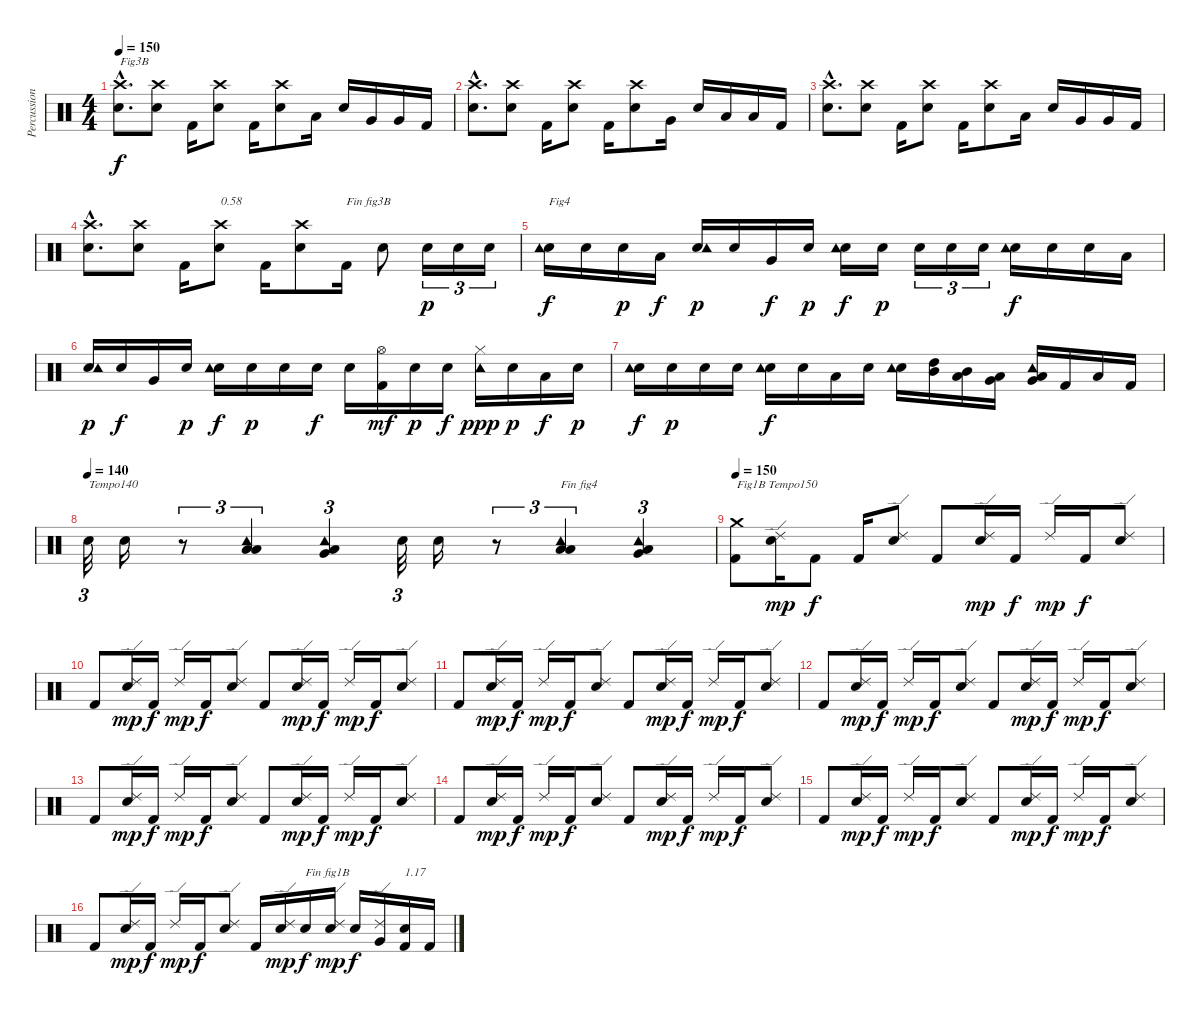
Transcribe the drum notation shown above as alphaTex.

\track ("Percussions" "Percussion") {instrument percussion}
\staff {score}
\articulation defaults
\ts (4 4)
\tempo 150
\clef neutral
\ks c
("Electric Snare (hit)"{hac} "Crash high (hit)"{hac}).8{d txt "Fig3B" dy f} ("Electric Snare (hit)" "Crash high (hit)").8 "Kick (hit) 2".16 ("Electric Snare (hit)" "Crash high (hit)").8 "Kick (hit) 2".16 ("Electric Snare (hit)" "Crash high (hit)").8 "Low Tom (hit)".16 "Electric Snare (hit)".16 "Very Low Tom (hit)".16 "Very Low Tom (hit)".16 "Kick (hit) 2".16 |
("Electric Snare (hit)"{hac} "Crash high (hit)"{hac}).8{d} ("Electric Snare (hit)" "Crash high (hit)").8 "Kick (hit) 2".16 ("Electric Snare (hit)" "Crash high (hit)").8 "Kick (hit) 2".16 ("Electric Snare (hit)" "Crash high (hit)").8 "Very Low Tom (hit)".16 "Electric Snare (hit)".16 "Low Tom (hit)".16 "Low Tom (hit)".16 "Kick (hit) 2".16 |
("Electric Snare (hit)"{hac} "Crash high (hit)"{hac}).8{d} ("Electric Snare (hit)" "Crash high (hit)").8 "Kick (hit) 2".16 ("Electric Snare (hit)" "Crash high (hit)").8 "Kick (hit) 2".16 ("Electric Snare (hit)" "Crash high (hit)").8 "Low Tom (hit)".16 "Electric Snare (hit)".16 "Very Low Tom (hit)".16 "Very Low Tom (hit)".16 "Kick (hit) 2".16 |
("Electric Snare (hit)"{hac} "Crash high (hit)"{hac}).8{d} ("Electric Snare (hit)" "Crash high (hit)").8 "Kick (hit) 2".16 ("Electric Snare (hit)" "Crash high (hit)").8{txt "0.58"} "Kick (hit) 2".16 ("Electric Snare (hit)" "Crash high (hit)").8 "Kick (hit) 2".16{txt "Fin fig3B"} "Electric Snare (hit)".8 "Electric Snare (hit)".16{tu (3 2) dy p} "Electric Snare (hit)".16{tu (3 2)} "Electric Snare (hit)".16{tu (3 2)} |
("Electric Snare (hit)" "Tambourine (hit)").16{txt "Fig4" dy f} "Electric Snare (hit)".16 "Electric Snare (hit)".16{dy p} "Low Tom (hit)".16{dy f} ("Electric Snare (hit)" "Tambourine (hit)").16{dy p} "Electric Snare (hit)".16 "Very Low Tom (hit)".16{dy f} "Electric Snare (hit)".16{dy p} ("Electric Snare (hit)" "Tambourine (hit)").16{dy f} "Electric Snare (hit)".16{dy p} "Electric Snare (hit)".16{tu (3 2)} "Electric Snare (hit)".16{tu (3 2)} "Electric Snare (hit)".16{tu (3 2)} ("Electric Snare (hit)" "Tambourine (hit)").16{dy f} "Electric Snare (hit)".16 "Electric Snare (hit)".16 "Low Tom (hit)".16 |
("Electric Snare (hit)" "Tambourine (hit)").16{dy p} "Electric Snare (hit)".16{dy f} "Very Low Tom (hit)".16 "Electric Snare (hit)".16{dy p} ("Electric Snare (hit)" "Tambourine (hit)").16{dy f} "Electric Snare (hit)".16{dy p} "Electric Snare (hit)".16 "Electric Snare (hit)".16{dy f} "Electric Snare (hit)".16 ("Kick (hit) 2" "Hi-Hat (open)").16{dy mf} "Electric Snare (hit)".16{dy p} "Electric Snare (hit)".16{dy f} ("Tambourine (hit)" "Hi-Hat (closed)").16{dy ppp} "Electric Snare (hit)".16{dy p} "Low Tom (hit)".16{dy f} "Electric Snare (hit)".16{dy p} |
("Electric Snare (hit)" "Tambourine (hit)").16{dy f} "Electric Snare (hit)".16{dy p} "Electric Snare (hit)".16 "Electric Snare (hit)".16 ("Electric Snare (hit)" "Tambourine (hit)").16{dy f} "Electric Snare (hit)".16 "Low Tom (hit)".16 "Electric Snare (hit)".16 ("Electric Snare (hit)" "Tambourine (hit)").16 ("High Tom (hit)" "Mid Tom (hit)").16 ("Mid Tom (hit)" "Low Tom (hit)").16 ("Low Tom (hit)" "Very Low Tom (hit)").16 ("Very Low Tom (hit)" "Low Floor Tom (hit)" "Tambourine (hit)").16 "Kick (hit) 2".16 "Low Floor Tom (hit)".16 "Kick (hit) 2".16 |
\tempo (140)
"Electric Snare (hit)".32{tu (3 2) txt "Tempo140"} "Electric Snare (hit)".16 r.8{tu (3 2)} ("Low Tom (hit)" "Low Floor Tom (hit)" "Tambourine (hit)").4{tu (3 2)} ("Very Low Tom (hit)" "Low Floor Tom (hit)" "Tambourine (hit)").4{tu (3 2)} "Electric Snare (hit)".32{tu (3 2)} "Electric Snare (hit)".16 r.8{tu (3 2)} ("Low Tom (hit)" "Low Floor Tom (hit)" "Tambourine (hit)").4{tu (3 2) txt "Fin fig4"} ("Very Low Tom (hit)" "Low Floor Tom (hit)" "Tambourine (hit)").4{tu (3 2)} |
\tempo 150
("Kick (hit) 2" "Crash medium (hit)").8{txt "Fig1B Tempo150"} ("Electric Snare (hit)" "Ride (edge) 2").16{dy mp} "Kick (hit) 2".8{dy f} "Kick (hit) 2".16 ("Electric Snare (hit)" "Ride (edge) 2").8 "Kick (hit) 2".8 ("Electric Snare (hit)" "Ride (edge) 2").16{dy mp} "Kick (hit) 2".16{dy f} "Ride (edge) 2".16{dy mp} "Kick (hit) 2".16{dy f} ("Electric Snare (hit)" "Ride (edge) 2").8 |
"Kick (hit) 2".8 ("Electric Snare (hit)" "Ride (edge) 2").16{dy mp} "Kick (hit) 2".16{dy f} "Ride (edge) 2".16{dy mp} "Kick (hit) 2".16{dy f} ("Electric Snare (hit)" "Ride (edge) 2").8 "Kick (hit) 2".8 ("Electric Snare (hit)" "Ride (edge) 2").16{dy mp} "Kick (hit) 2".16{dy f} "Ride (edge) 2".16{dy mp} "Kick (hit) 2".16{dy f} ("Electric Snare (hit)" "Ride (edge) 2").8 |
"Kick (hit) 2".8 ("Electric Snare (hit)" "Ride (edge) 2").16{dy mp} "Kick (hit) 2".16{dy f} "Ride (edge) 2".16{dy mp} "Kick (hit) 2".16{dy f} ("Electric Snare (hit)" "Ride (edge) 2").8 "Kick (hit) 2".8 ("Electric Snare (hit)" "Ride (edge) 2").16{dy mp} "Kick (hit) 2".16{dy f} "Ride (edge) 2".16{dy mp} "Kick (hit) 2".16{dy f} ("Electric Snare (hit)" "Ride (edge) 2").8 |
"Kick (hit) 2".8 ("Electric Snare (hit)" "Ride (edge) 2").16{dy mp} "Kick (hit) 2".16{dy f} "Ride (edge) 2".16{dy mp} "Kick (hit) 2".16{dy f} ("Electric Snare (hit)" "Ride (edge) 2").8 "Kick (hit) 2".8 ("Electric Snare (hit)" "Ride (edge) 2").16{dy mp} "Kick (hit) 2".16{dy f} "Ride (edge) 2".16{dy mp} "Kick (hit) 2".16{dy f} ("Electric Snare (hit)" "Ride (edge) 2").8 |
"Kick (hit) 2".8 ("Electric Snare (hit)" "Ride (edge) 2").16{dy mp} "Kick (hit) 2".16{dy f} "Ride (edge) 2".16{dy mp} "Kick (hit) 2".16{dy f} ("Electric Snare (hit)" "Ride (edge) 2").8 "Kick (hit) 2".8 ("Electric Snare (hit)" "Ride (edge) 2").16{dy mp} "Kick (hit) 2".16{dy f} "Ride (edge) 2".16{dy mp} "Kick (hit) 2".16{dy f} ("Electric Snare (hit)" "Ride (edge) 2").8 |
"Kick (hit) 2".8 ("Electric Snare (hit)" "Ride (edge) 2").16{dy mp} "Kick (hit) 2".16{dy f} "Ride (edge) 2".16{dy mp} "Kick (hit) 2".16{dy f} ("Electric Snare (hit)" "Ride (edge) 2").8 "Kick (hit) 2".8 ("Electric Snare (hit)" "Ride (edge) 2").16{dy mp} "Kick (hit) 2".16{dy f} "Ride (edge) 2".16{dy mp} "Kick (hit) 2".16{dy f} ("Electric Snare (hit)" "Ride (edge) 2").8 |
"Kick (hit) 2".8 ("Electric Snare (hit)" "Ride (edge) 2").16{dy mp} "Kick (hit) 2".16{dy f} "Ride (edge) 2".16{dy mp} "Kick (hit) 2".16{dy f} ("Electric Snare (hit)" "Ride (edge) 2").8 "Kick (hit) 2".8 ("Electric Snare (hit)" "Ride (edge) 2").16{dy mp} "Kick (hit) 2".16{dy f} "Ride (edge) 2".16{dy mp} "Kick (hit) 2".16{dy f} ("Electric Snare (hit)" "Ride (edge) 2").8 |
"Kick (hit) 2".8 ("Electric Snare (hit)" "Ride (edge) 2").16{dy mp} "Kick (hit) 2".16{dy f} "Ride (edge) 2".16{dy mp} "Kick (hit) 2".16{dy f} ("Electric Snare (hit)" "Ride (edge) 2").8 "Kick (hit) 2".16 ("Electric Snare (hit)" "Ride (edge) 2").16{dy mp} "Electric Snare (hit)".16{txt "Fin fig1B" dy f} ("Electric Snare (hit)" "Ride (edge) 2").16{dy mp} "Electric Snare (hit)".16{dy f} ("Very Low Tom (hit)" "Ride (edge) 2").16 ("Kick (hit) 2" "Snare (hit)").16{txt "1.17"} "Kick (hit) 2".16
